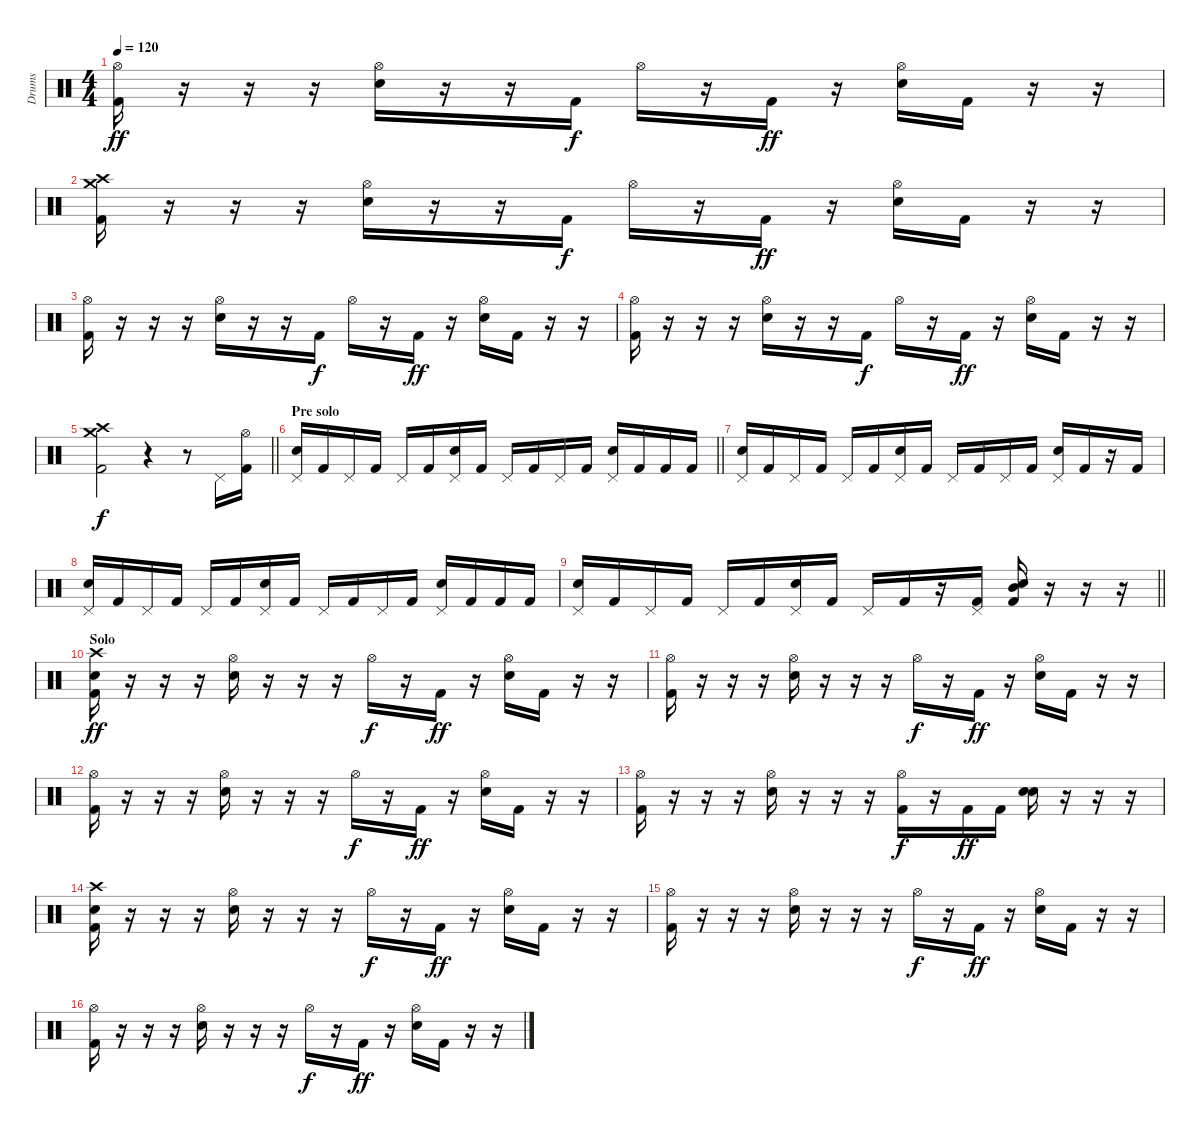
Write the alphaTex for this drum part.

\track ("Drums" "Drums") {instrument percussion}
\staff {score}
\articulation defaults
\ts (4 4)
\tempo 120
\clef neutral
\ks c
("Hi-Hat (open)" "Kick (hit) 2").16{dy ff} r.16 r.16 r.16 ("Hi-Hat (open)" "Electric Snare (hit)").16 r.16 r.16 "Kick (hit) 2".16{dy f} "Hi-Hat (open)".16 r.16 "Kick (hit) 2".16{dy ff} r.16 ("Hi-Hat (open)" "Electric Snare (hit)").16 "Kick (hit) 2".16 r.16 r.16 |
("Crash high (hit)" "Crash medium (hit)" "Kick (hit) 2").16 r.16 r.16 r.16 ("Hi-Hat (open)" "Electric Snare (hit)").16 r.16 r.16 "Kick (hit) 2".16{dy f} "Hi-Hat (open)".16 r.16 "Kick (hit) 2".16{dy ff} r.16 ("Hi-Hat (open)" "Electric Snare (hit)").16 "Kick (hit) 2".16 r.16 r.16 |
("Hi-Hat (open)" "Kick (hit) 2").16 r.16 r.16 r.16 ("Hi-Hat (open)" "Electric Snare (hit)").16 r.16 r.16 "Kick (hit) 2".16{dy f} "Hi-Hat (open)".16 r.16 "Kick (hit) 2".16{dy ff} r.16 ("Hi-Hat (open)" "Electric Snare (hit)").16 "Kick (hit) 2".16 r.16 r.16 |
("Hi-Hat (open)" "Kick (hit) 2").16 r.16 r.16 r.16 ("Hi-Hat (open)" "Electric Snare (hit)").16 r.16 r.16 "Kick (hit) 2".16{dy f} "Hi-Hat (open)".16 r.16 "Kick (hit) 2".16{dy ff} r.16 ("Hi-Hat (open)" "Electric Snare (hit)").16 "Kick (hit) 2".16 r.16 r.16 |
\barLineRight lightlight
("Crash medium (hit)" "Crash high (hit)" "Kick (hit) 2").2{dy f} r.4 r.8 "Pedal Hi-Hat (hit)".16 ("Hi-Hat (open)" "Kick (hit) 2").16 |
\section ("" "Pre solo")
\barLineRight lightlight
("Pedal Hi-Hat (hit)" "Electric Snare (hit)").16 "Kick (hit) 2".16 "Pedal Hi-Hat (hit)".16 "Kick (hit) 2".16 "Pedal Hi-Hat (hit)".16 "Kick (hit) 2".16 ("Pedal Hi-Hat (hit)" "Electric Snare (hit)").16 "Kick (hit) 2".16 "Pedal Hi-Hat (hit)".16 "Kick (hit) 2".16 "Pedal Hi-Hat (hit)".16 "Kick (hit) 2".16 ("Pedal Hi-Hat (hit)" "Electric Snare (hit)").16 "Kick (hit) 2".16 "Kick (hit) 2".16 "Kick (hit) 2".16 |
("Pedal Hi-Hat (hit)" "Electric Snare (hit)").16 "Kick (hit) 2".16 "Pedal Hi-Hat (hit)".16 "Kick (hit) 2".16 "Pedal Hi-Hat (hit)".16 "Kick (hit) 2".16 ("Pedal Hi-Hat (hit)" "Electric Snare (hit)").16 "Kick (hit) 2".16 "Pedal Hi-Hat (hit)".16 "Kick (hit) 2".16 "Pedal Hi-Hat (hit)".16 "Kick (hit) 2".16 ("Pedal Hi-Hat (hit)" "Electric Snare (hit)").16 "Kick (hit) 2".16 r.16 "Kick (hit) 2".16 |
("Pedal Hi-Hat (hit)" "Electric Snare (hit)").16 "Kick (hit) 2".16 "Pedal Hi-Hat (hit)".16 "Kick (hit) 2".16 "Pedal Hi-Hat (hit)".16 "Kick (hit) 2".16 ("Pedal Hi-Hat (hit)" "Electric Snare (hit)").16 "Kick (hit) 2".16 "Pedal Hi-Hat (hit)".16 "Kick (hit) 2".16 "Pedal Hi-Hat (hit)".16 "Kick (hit) 2".16 ("Pedal Hi-Hat (hit)" "Electric Snare (hit)").16 "Kick (hit) 2".16 "Kick (hit) 2".16 "Kick (hit) 2".16 |
\barLineRight lightlight
("Pedal Hi-Hat (hit)" "Electric Snare (hit)").16 "Kick (hit) 2".16 "Pedal Hi-Hat (hit)".16 "Kick (hit) 2".16 "Pedal Hi-Hat (hit)".16 "Kick (hit) 2".16 ("Pedal Hi-Hat (hit)" "Electric Snare (hit)").16 "Kick (hit) 2".16 "Pedal Hi-Hat (hit)".16 "Kick (hit) 2".16 r.16 ("Pedal Hi-Hat (hit)" "Kick (hit) 2").16 ("Mid Tom (hit)" "Electric Snare (hit)" "Kick (hit) 2").16 r.16 r.16 r.16 |
\section ("" "Solo")
("Crash high (hit)" "Electric Snare (hit)" "Kick (hit) 2").16{dy ff} r.16 r.16 r.16 ("Hi-Hat (open)" "Electric Snare (hit)").16 r.16 r.16 r.16 "Hi-Hat (open)".16{dy f} r.16 "Kick (hit) 2".16{dy ff} r.16 ("Hi-Hat (open)" "Electric Snare (hit)").16 "Kick (hit) 2".16 r.16 r.16 |
("Hi-Hat (open)" "Kick (hit) 2").16 r.16 r.16 r.16 ("Hi-Hat (open)" "Electric Snare (hit)").16 r.16 r.16 r.16 "Hi-Hat (open)".16{dy f} r.16 "Kick (hit) 2".16{dy ff} r.16 ("Hi-Hat (open)" "Electric Snare (hit)").16 "Kick (hit) 2".16 r.16 r.16 |
("Hi-Hat (open)" "Kick (hit) 2").16 r.16 r.16 r.16 ("Hi-Hat (open)" "Electric Snare (hit)").16 r.16 r.16 r.16 "Hi-Hat (open)".16{dy f} r.16 "Kick (hit) 2".16{dy ff} r.16 ("Hi-Hat (open)" "Electric Snare (hit)").16 "Kick (hit) 2".16 r.16 r.16 |
("Hi-Hat (open)" "Kick (hit) 2").16 r.16 r.16 r.16 ("Hi-Hat (open)" "Electric Snare (hit)").16 r.16 r.16 r.16 ("Hi-Hat (open)" "Kick (hit) 2").16{dy f} r.16 "Kick (hit) 2".16{dy ff} "Kick (hit) 2".16 ("Snare (hit) 2" "Electric Snare (hit)").16 r.16 r.16 r.16 |
("Crash high (hit)" "Electric Snare (hit)" "Kick (hit) 2").16 r.16 r.16 r.16 ("Hi-Hat (open)" "Electric Snare (hit)").16 r.16 r.16 r.16 "Hi-Hat (open)".16{dy f} r.16 "Kick (hit) 2".16{dy ff} r.16 ("Hi-Hat (open)" "Electric Snare (hit)").16 "Kick (hit) 2".16 r.16 r.16 |
("Hi-Hat (open)" "Kick (hit) 2").16 r.16 r.16 r.16 ("Hi-Hat (open)" "Electric Snare (hit)").16 r.16 r.16 r.16 "Hi-Hat (open)".16{dy f} r.16 "Kick (hit) 2".16{dy ff} r.16 ("Hi-Hat (open)" "Electric Snare (hit)").16 "Kick (hit) 2".16 r.16 r.16 |
("Hi-Hat (open)" "Kick (hit) 2").16 r.16 r.16 r.16 ("Hi-Hat (open)" "Electric Snare (hit)").16 r.16 r.16 r.16 "Hi-Hat (open)".16{dy f} r.16 "Kick (hit) 2".16{dy ff} r.16 ("Hi-Hat (open)" "Electric Snare (hit)").16 "Kick (hit) 2".16 r.16 r.16
